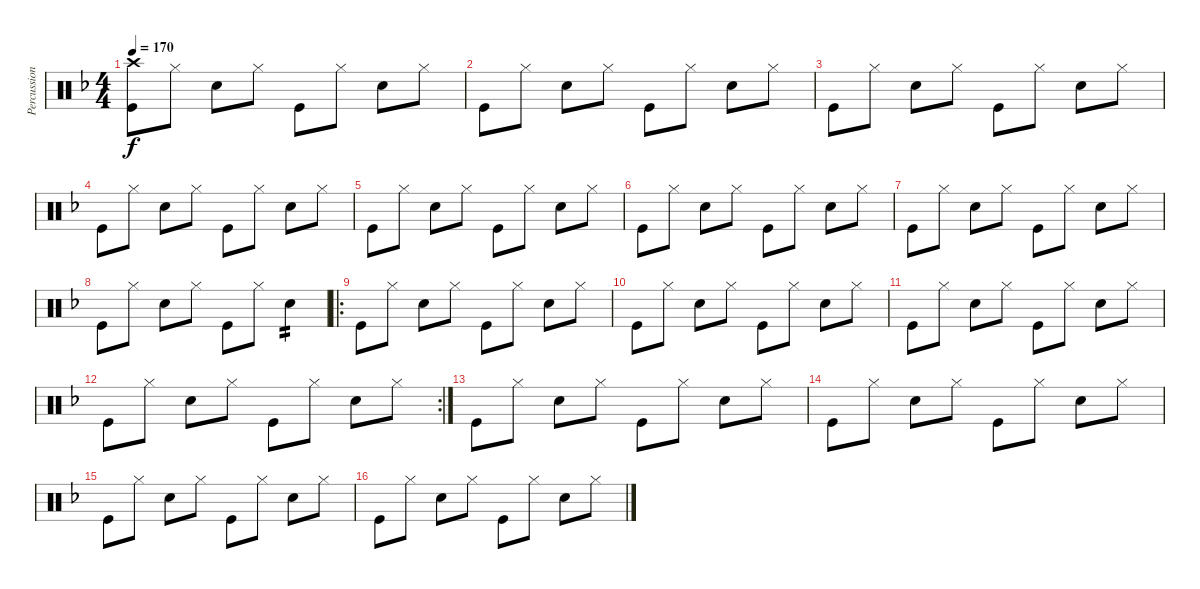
\track ("Percussion" "Percussion") {instrument percussion}
\staff {score}
\articulation defaults
\ts (4 4)
\tempo 170
\clef neutral
\ks f
("Crash high (hit)" "Kick (hit)").8{dy f} "Hi-Hat (closed)".8 "Snare (hit) 2".8 "Hi-Hat (closed)".8 "Kick (hit)".8 "Hi-Hat (closed)".8 "Snare (hit) 2".8 "Hi-Hat (closed)".8 |
"Kick (hit)".8 "Hi-Hat (closed)".8 "Snare (hit) 2".8 "Hi-Hat (closed)".8 "Kick (hit)".8 "Hi-Hat (closed)".8 "Snare (hit) 2".8 "Hi-Hat (closed)".8 |
"Kick (hit)".8 "Hi-Hat (closed)".8 "Snare (hit) 2".8 "Hi-Hat (closed)".8 "Kick (hit)".8 "Hi-Hat (closed)".8 "Snare (hit) 2".8 "Hi-Hat (closed)".8 |
"Kick (hit)".8 "Hi-Hat (closed)".8 "Snare (hit) 2".8 "Hi-Hat (closed)".8 "Kick (hit)".8 "Hi-Hat (closed)".8 "Snare (hit) 2".8 "Hi-Hat (closed)".8 |
"Kick (hit)".8 "Hi-Hat (closed)".8 "Snare (hit) 2".8 "Hi-Hat (closed)".8 "Kick (hit)".8 "Hi-Hat (closed)".8 "Snare (hit) 2".8 "Hi-Hat (closed)".8 |
"Kick (hit)".8 "Hi-Hat (closed)".8 "Snare (hit) 2".8 "Hi-Hat (closed)".8 "Kick (hit)".8 "Hi-Hat (closed)".8 "Snare (hit) 2".8 "Hi-Hat (closed)".8 |
"Kick (hit)".8 "Hi-Hat (closed)".8 "Snare (hit) 2".8 "Hi-Hat (closed)".8 "Kick (hit)".8 "Hi-Hat (closed)".8 "Snare (hit) 2".8 "Hi-Hat (closed)".8 |
"Kick (hit)".8 "Hi-Hat (closed)".8 "Snare (hit) 2".8 "Hi-Hat (closed)".8 "Kick (hit)".8 "Hi-Hat (closed)".8 "Snare (hit) 2".4{tp 2} |
\ro "Kick (hit)".8 "Hi-Hat (closed)".8 "Snare (hit) 2".8 "Hi-Hat (closed)".8 "Kick (hit)".8 "Hi-Hat (closed)".8 "Snare (hit) 2".8 "Hi-Hat (closed)".8
|
"Kick (hit)".8 "Hi-Hat (closed)".8 "Snare (hit) 2".8 "Hi-Hat (closed)".8 "Kick (hit)".8 "Hi-Hat (closed)".8 "Snare (hit) 2".8 "Hi-Hat (closed)".8 |
"Kick (hit)".8 "Hi-Hat (closed)".8 "Snare (hit) 2".8 "Hi-Hat (closed)".8 "Kick (hit)".8 "Hi-Hat (closed)".8 "Snare (hit) 2".8 "Hi-Hat (closed)".8 |
\rc 2 "Kick (hit)".8 "Hi-Hat (closed)".8 "Snare (hit) 2".8 "Hi-Hat (closed)".8 "Kick (hit)".8 "Hi-Hat (closed)".8 "Snare (hit) 2".8 "Hi-Hat (closed)".8
|
"Kick (hit)".8 "Hi-Hat (closed)".8 "Snare (hit) 2".8 "Hi-Hat (closed)".8 "Kick (hit)".8 "Hi-Hat (closed)".8 "Snare (hit) 2".8 "Hi-Hat (closed)".8 |
"Kick (hit)".8 "Hi-Hat (closed)".8 "Snare (hit) 2".8 "Hi-Hat (closed)".8 "Kick (hit)".8 "Hi-Hat (closed)".8 "Snare (hit) 2".8 "Hi-Hat (closed)".8 |
"Kick (hit)".8 "Hi-Hat (closed)".8 "Snare (hit) 2".8 "Hi-Hat (closed)".8 "Kick (hit)".8 "Hi-Hat (closed)".8 "Snare (hit) 2".8 "Hi-Hat (closed)".8 |
"Kick (hit)".8 "Hi-Hat (closed)".8 "Snare (hit) 2".8 "Hi-Hat (closed)".8 "Kick (hit)".8 "Hi-Hat (closed)".8 "Snare (hit) 2".8 "Hi-Hat (closed)".8
